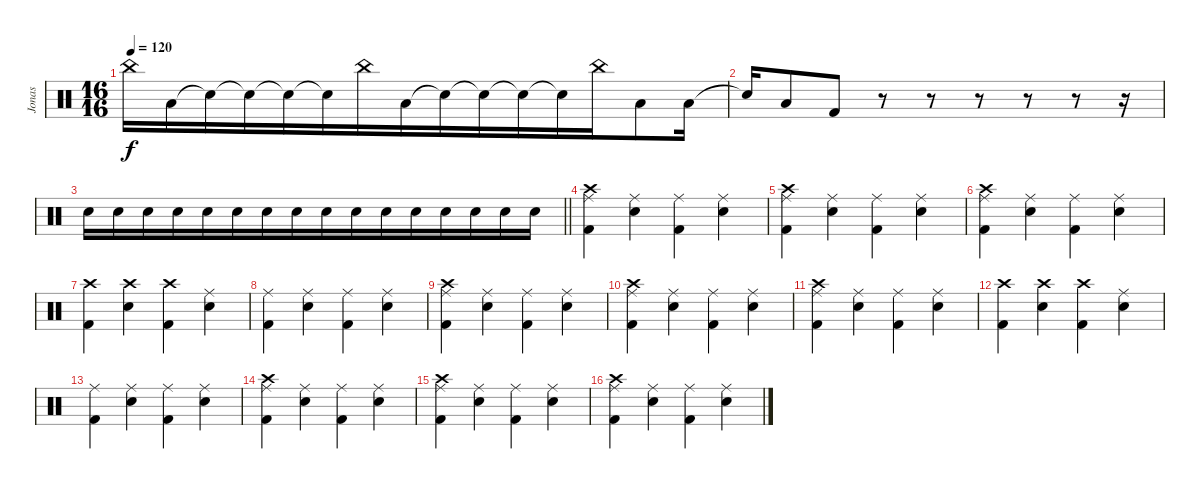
\track ("Jonas" "Jonas") {instrument percussion}
\staff {score}
\articulation defaults
\ts (16 16)
\tempo 120
\clef neutral
\ks c "China (hit)".16{dy f beam merge} "Low Floor Tom (hit)".16{beam merge} "Snare (hit)"{t}.16{beam merge} "Snare (hit)"{t}.16{beam merge} "Snare (hit)"{t}.16{beam merge} "Snare (hit)"{t}.16{beam merge} "China (hit)".16{beam merge} "Low Floor Tom (hit)".16{beam merge} "Snare (hit)"{t}.16{beam merge} "Snare (hit)"{t}.16{beam merge} "Snare (hit)"{t}.16{beam merge} "Snare (hit)"{t}.16{beam merge} "China (hit)".16{beam merge} "Low Floor Tom (hit)".8{beam merge} "Low Floor Tom (hit)".16
|
"Snare (hit)"{t}.16{beam merge} "Low Floor Tom (hit)".8{beam merge} "Kick (hit) 2".8 r.8 r.8 r.8 r.8 r.8 r.16 |
\barLineRight lightlight "Snare (hit) 2".16{beam merge} "Snare (hit) 2".16{beam merge} "Snare (hit) 2".16{beam merge} "Snare (hit) 2".16{beam merge} "Snare (hit) 2".16{beam merge} "Snare (hit) 2".16{beam merge} "Snare (hit) 2".16{beam merge} "Snare (hit) 2".16{beam merge} "Snare (hit) 2".16{beam merge} "Snare (hit) 2".16{beam merge} "Snare (hit) 2".16{beam merge} "Snare (hit) 2".16{beam merge} "Snare (hit) 2".16{beam merge} "Snare (hit) 2".16{beam merge} "Snare (hit) 2".16{beam merge} "Snare (hit) 2".16
|
("Crash high (hit)" "Ride (middle)" "Kick (hit) 2").4 ("Ride (middle)" "Snare (hit) 2").4 ("Ride (middle)" "Kick (hit) 2").4 ("Ride (middle)" "Snare (hit) 2").4 |
("Crash high (hit)" "Ride (middle)" "Kick (hit) 2").4 ("Ride (middle)" "Snare (hit) 2").4 ("Ride (middle)" "Kick (hit) 2").4 ("Ride (middle)" "Snare (hit) 2").4 |
("Crash high (hit)" "Ride (middle)" "Kick (hit) 2").4 ("Ride (middle)" "Snare (hit) 2").4 ("Ride (middle)" "Kick (hit) 2").4 ("Ride (middle)" "Snare (hit) 2").4 |
("Crash high (hit)" "Kick (hit) 2").4 ("Crash high (hit)" "Snare (hit) 2").4 ("Crash high (hit)" "Kick (hit) 2").4 ("Ride (middle)" "Snare (hit) 2").4 |
("Ride (middle)" "Kick (hit) 2").4 ("Ride (middle)" "Snare (hit) 2").4 ("Ride (middle)" "Kick (hit) 2").4 ("Ride (middle)" "Snare (hit) 2").4 |
("Crash high (hit)" "Ride (middle)" "Kick (hit) 2").4 ("Ride (middle)" "Snare (hit) 2").4 ("Ride (middle)" "Kick (hit) 2").4 ("Ride (middle)" "Snare (hit) 2").4 |
("Crash high (hit)" "Ride (middle)" "Kick (hit) 2").4 ("Ride (middle)" "Snare (hit) 2").4 ("Ride (middle)" "Kick (hit) 2").4 ("Ride (middle)" "Snare (hit) 2").4 |
("Crash high (hit)" "Ride (middle)" "Kick (hit) 2").4 ("Ride (middle)" "Snare (hit) 2").4 ("Ride (middle)" "Kick (hit) 2").4 ("Ride (middle)" "Snare (hit) 2").4 |
("Crash high (hit)" "Kick (hit) 2").4 ("Crash high (hit)" "Snare (hit) 2").4 ("Crash high (hit)" "Kick (hit) 2").4 ("Ride (middle)" "Snare (hit) 2").4 |
("Ride (middle)" "Kick (hit) 2").4 ("Ride (middle)" "Snare (hit) 2").4 ("Ride (middle)" "Kick (hit) 2").4 ("Ride (middle)" "Snare (hit) 2").4 |
("Crash high (hit)" "Ride (middle)" "Kick (hit) 2").4 ("Ride (middle)" "Snare (hit) 2").4 ("Ride (middle)" "Kick (hit) 2").4 ("Ride (middle)" "Snare (hit) 2").4 |
("Crash high (hit)" "Ride (middle)" "Kick (hit) 2").4 ("Ride (middle)" "Snare (hit) 2").4 ("Ride (middle)" "Kick (hit) 2").4 ("Ride (middle)" "Snare (hit) 2").4 |
("Crash high (hit)" "Ride (middle)" "Kick (hit) 2").4 ("Ride (middle)" "Snare (hit) 2").4 ("Ride (middle)" "Kick (hit) 2").4 ("Ride (middle)" "Snare (hit) 2").4
